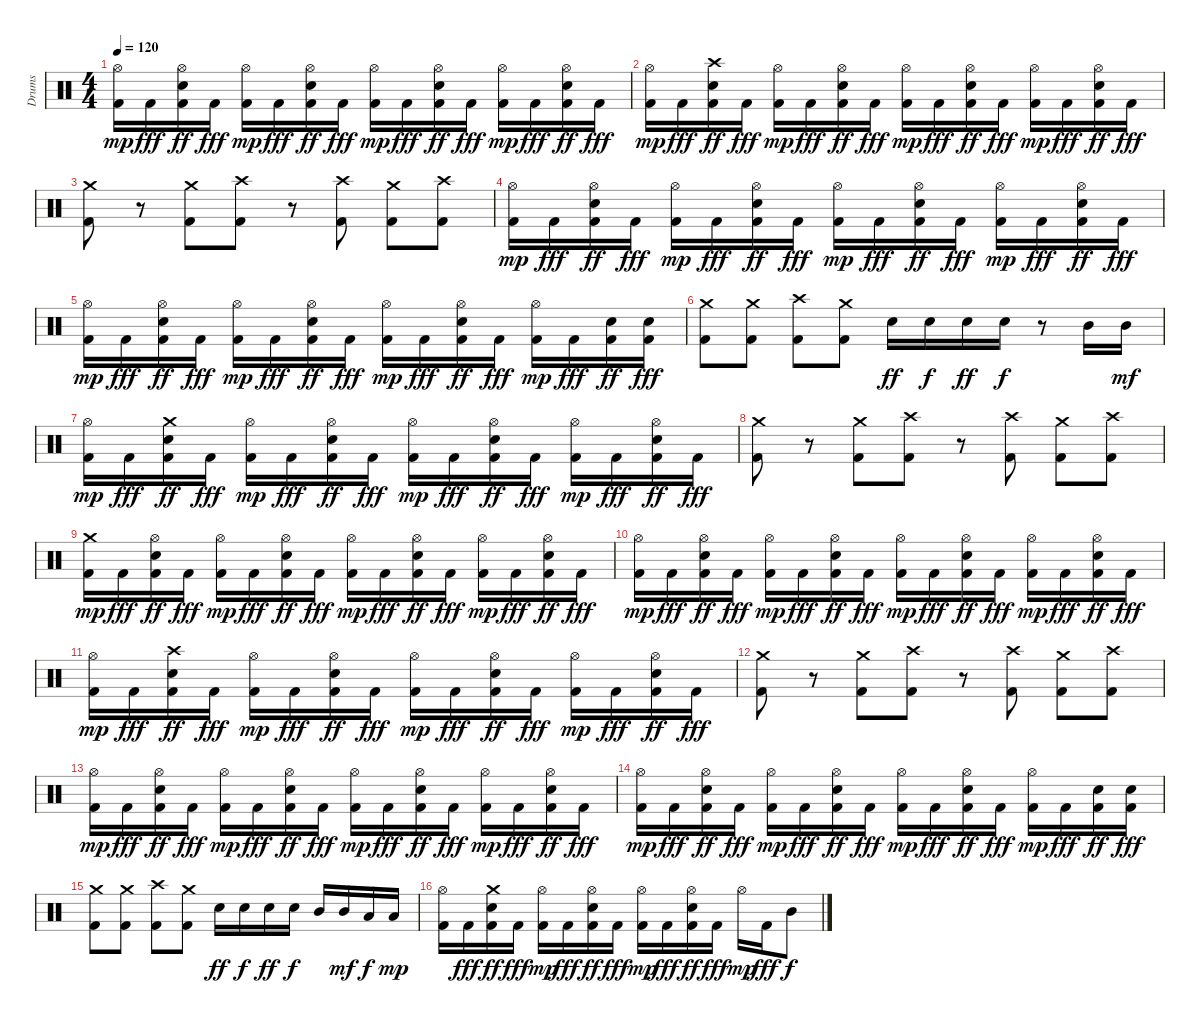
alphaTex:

\track ("Drums" "Drums") {instrument percussion}
\staff {score}
\articulation defaults
\ts (4 4)
\tempo 120
\clef neutral
\ks c
("Kick (hit) 2" "Hi-Hat (open)").16{dy mp} "Kick (hit) 2".16{dy fff} ("Kick (hit) 2" "Hi-Hat (open)" "Snare (hit) 2").16{dy ff} "Kick (hit) 2".16{dy fff} ("Kick (hit) 2" "Hi-Hat (open)").16{dy mp} "Kick (hit) 2".16{dy fff} ("Kick (hit) 2" "Hi-Hat (open)" "Snare (hit) 2").16{dy ff} "Kick (hit) 2".16{dy fff} ("Kick (hit) 2" "Hi-Hat (open)").16{dy mp} "Kick (hit) 2".16{dy fff} ("Kick (hit) 2" "Hi-Hat (open)" "Snare (hit) 2").16{dy ff} "Kick (hit) 2".16{dy fff} ("Kick (hit) 2" "Hi-Hat (open)").16{dy mp} "Kick (hit) 2".16{dy fff} ("Kick (hit) 2" "Hi-Hat (open)" "Snare (hit) 2").16{dy ff} "Kick (hit) 2".16{dy fff} |
("Kick (hit) 2" "Hi-Hat (open)").16{dy mp} "Kick (hit) 2".16{dy fff} ("Kick (hit) 2" "Crash high (hit)" "Snare (hit) 2").16{dy ff} "Kick (hit) 2".16{dy fff} ("Kick (hit) 2" "Hi-Hat (open)").16{dy mp} "Kick (hit) 2".16{dy fff} ("Kick (hit) 2" "Hi-Hat (open)" "Snare (hit) 2").16{dy ff} "Kick (hit) 2".16{dy fff} ("Kick (hit) 2" "Hi-Hat (open)").16{dy mp} "Kick (hit) 2".16{dy fff} ("Kick (hit) 2" "Hi-Hat (open)" "Snare (hit) 2").16{dy ff} "Kick (hit) 2".16{dy fff} ("Kick (hit) 2" "Hi-Hat (open)").16{dy mp} "Kick (hit) 2".16{dy fff} ("Kick (hit) 2" "Hi-Hat (open)" "Snare (hit) 2").16{dy ff} "Kick (hit) 2".16{dy fff} |
("Crash medium (hit)" "Kick (hit) 2").8 r.8 ("Crash medium (hit)" "Kick (hit) 2").8 ("Crash high (hit)" "Kick (hit) 2").8 r.8 ("Crash high (hit)" "Kick (hit) 2").8 ("Crash medium (hit)" "Kick (hit) 2").8 ("Crash high (hit)" "Kick (hit) 2").8 |
("Kick (hit) 2" "Hi-Hat (open)").16{dy mp} "Kick (hit) 2".16{dy fff} ("Kick (hit) 2" "Hi-Hat (open)" "Snare (hit) 2").16{dy ff} "Kick (hit) 2".16{dy fff} ("Kick (hit) 2" "Hi-Hat (open)").16{dy mp} "Kick (hit) 2".16{dy fff} ("Kick (hit) 2" "Hi-Hat (open)" "Snare (hit) 2").16{dy ff} "Kick (hit) 2".16{dy fff} ("Kick (hit) 2" "Hi-Hat (open)").16{dy mp} "Kick (hit) 2".16{dy fff} ("Kick (hit) 2" "Hi-Hat (open)" "Snare (hit) 2").16{dy ff} "Kick (hit) 2".16{dy fff} ("Kick (hit) 2" "Hi-Hat (open)").16{dy mp} "Kick (hit) 2".16{dy fff} ("Kick (hit) 2" "Hi-Hat (open)" "Snare (hit) 2").16{dy ff} "Kick (hit) 2".16{dy fff} |
("Kick (hit) 2" "Hi-Hat (open)").16{dy mp} "Kick (hit) 2".16{dy fff} ("Kick (hit) 2" "Hi-Hat (open)" "Snare (hit) 2").16{dy ff} "Kick (hit) 2".16{dy fff} ("Kick (hit) 2" "Hi-Hat (open)").16{dy mp} "Kick (hit) 2".16{dy fff} ("Kick (hit) 2" "Hi-Hat (open)" "Snare (hit) 2").16{dy ff} "Kick (hit) 2".16{dy fff} ("Kick (hit) 2" "Hi-Hat (open)").16{dy mp} "Kick (hit) 2".16{dy fff} ("Kick (hit) 2" "Hi-Hat (open)" "Snare (hit) 2").16{dy ff} "Kick (hit) 2".16{dy fff} ("Kick (hit) 2" "Hi-Hat (open)").16{dy mp} "Kick (hit) 2".16{dy fff} ("Kick (hit) 2" "Snare (hit) 2").16{dy ff} ("Kick (hit) 2" "Snare (hit) 2").16{dy fff} |
("Crash medium (hit)" "Kick (hit) 2").8 ("Crash medium (hit)" "Kick (hit) 2").8 ("Crash high (hit)" "Kick (hit) 2").8 ("Crash medium (hit)" "Kick (hit) 2").8 "Snare (hit) 2".16{dy ff} "Snare (hit) 2".16{dy f} "Snare (hit) 2".16{dy ff} "Snare (hit) 2".16{dy f} r.8 "Mid Tom (hit)".16 "Mid Tom (hit)".16{dy mf} |
("Kick (hit) 2" "Hi-Hat (open)").16{dy mp} "Kick (hit) 2".16{dy fff} ("Kick (hit) 2" "Crash medium (hit)" "Snare (hit) 2").16{dy ff} "Kick (hit) 2".16{dy fff} ("Kick (hit) 2" "Hi-Hat (open)").16{dy mp} "Kick (hit) 2".16{dy fff} ("Kick (hit) 2" "Hi-Hat (open)" "Snare (hit) 2").16{dy ff} "Kick (hit) 2".16{dy fff} ("Kick (hit) 2" "Hi-Hat (open)").16{dy mp} "Kick (hit) 2".16{dy fff} ("Kick (hit) 2" "Hi-Hat (open)" "Snare (hit) 2").16{dy ff} "Kick (hit) 2".16{dy fff} ("Kick (hit) 2" "Hi-Hat (open)").16{dy mp} "Kick (hit) 2".16{dy fff} ("Kick (hit) 2" "Hi-Hat (open)" "Snare (hit) 2").16{dy ff} "Kick (hit) 2".16{dy fff} |
("Crash medium (hit)" "Kick (hit) 2").8 r.8 ("Crash medium (hit)" "Kick (hit) 2").8 ("Crash high (hit)" "Kick (hit) 2").8 r.8 ("Crash high (hit)" "Kick (hit) 2").8 ("Crash medium (hit)" "Kick (hit) 2").8 ("Crash high (hit)" "Kick (hit) 2").8 |
("Kick (hit) 2" "Crash medium (hit)").16{dy mp} "Kick (hit) 2".16{dy fff} ("Kick (hit) 2" "Hi-Hat (open)" "Snare (hit) 2").16{dy ff} "Kick (hit) 2".16{dy fff} ("Kick (hit) 2" "Hi-Hat (open)").16{dy mp} "Kick (hit) 2".16{dy fff} ("Kick (hit) 2" "Hi-Hat (open)" "Snare (hit) 2").16{dy ff} "Kick (hit) 2".16{dy fff} ("Kick (hit) 2" "Hi-Hat (open)").16{dy mp} "Kick (hit) 2".16{dy fff} ("Kick (hit) 2" "Hi-Hat (open)" "Snare (hit) 2").16{dy ff} "Kick (hit) 2".16{dy fff} ("Kick (hit) 2" "Hi-Hat (open)").16{dy mp} "Kick (hit) 2".16{dy fff} ("Kick (hit) 2" "Hi-Hat (open)" "Snare (hit) 2").16{dy ff} "Kick (hit) 2".16{dy fff} |
("Kick (hit) 2" "Hi-Hat (open)").16{dy mp} "Kick (hit) 2".16{dy fff} ("Kick (hit) 2" "Hi-Hat (open)" "Snare (hit) 2").16{dy ff} "Kick (hit) 2".16{dy fff} ("Kick (hit) 2" "Hi-Hat (open)").16{dy mp} "Kick (hit) 2".16{dy fff} ("Kick (hit) 2" "Hi-Hat (open)" "Snare (hit) 2").16{dy ff} "Kick (hit) 2".16{dy fff} ("Kick (hit) 2" "Hi-Hat (open)").16{dy mp} "Kick (hit) 2".16{dy fff} ("Kick (hit) 2" "Hi-Hat (open)" "Snare (hit) 2").16{dy ff} "Kick (hit) 2".16{dy fff} ("Kick (hit) 2" "Hi-Hat (open)").16{dy mp} "Kick (hit) 2".16{dy fff} ("Kick (hit) 2" "Hi-Hat (open)" "Snare (hit) 2").16{dy ff} "Kick (hit) 2".16{dy fff} |
("Kick (hit) 2" "Hi-Hat (open)").16{dy mp} "Kick (hit) 2".16{dy fff} ("Kick (hit) 2" "Crash high (hit)" "Snare (hit) 2").16{dy ff} "Kick (hit) 2".16{dy fff} ("Kick (hit) 2" "Hi-Hat (open)").16{dy mp} "Kick (hit) 2".16{dy fff} ("Kick (hit) 2" "Hi-Hat (open)" "Snare (hit) 2").16{dy ff} "Kick (hit) 2".16{dy fff} ("Kick (hit) 2" "Hi-Hat (open)").16{dy mp} "Kick (hit) 2".16{dy fff} ("Kick (hit) 2" "Hi-Hat (open)" "Snare (hit) 2").16{dy ff} "Kick (hit) 2".16{dy fff} ("Kick (hit) 2" "Hi-Hat (open)").16{dy mp} "Kick (hit) 2".16{dy fff} ("Kick (hit) 2" "Hi-Hat (open)" "Snare (hit) 2").16{dy ff} "Kick (hit) 2".16{dy fff} |
("Crash medium (hit)" "Kick (hit) 2").8 r.8 ("Crash medium (hit)" "Kick (hit) 2").8 ("Crash high (hit)" "Kick (hit) 2").8 r.8 ("Crash high (hit)" "Kick (hit) 2").8 ("Crash medium (hit)" "Kick (hit) 2").8 ("Crash high (hit)" "Kick (hit) 2").8 |
("Kick (hit) 2" "Hi-Hat (open)").16{dy mp} "Kick (hit) 2".16{dy fff} ("Kick (hit) 2" "Hi-Hat (open)" "Snare (hit) 2").16{dy ff} "Kick (hit) 2".16{dy fff} ("Kick (hit) 2" "Hi-Hat (open)").16{dy mp} "Kick (hit) 2".16{dy fff} ("Kick (hit) 2" "Hi-Hat (open)" "Snare (hit) 2").16{dy ff} "Kick (hit) 2".16{dy fff} ("Kick (hit) 2" "Hi-Hat (open)").16{dy mp} "Kick (hit) 2".16{dy fff} ("Kick (hit) 2" "Hi-Hat (open)" "Snare (hit) 2").16{dy ff} "Kick (hit) 2".16{dy fff} ("Kick (hit) 2" "Hi-Hat (open)").16{dy mp} "Kick (hit) 2".16{dy fff} ("Kick (hit) 2" "Hi-Hat (open)" "Snare (hit) 2").16{dy ff} "Kick (hit) 2".16{dy fff} |
("Kick (hit) 2" "Hi-Hat (open)").16{dy mp} "Kick (hit) 2".16{dy fff} ("Kick (hit) 2" "Hi-Hat (open)" "Snare (hit) 2").16{dy ff} "Kick (hit) 2".16{dy fff} ("Kick (hit) 2" "Hi-Hat (open)").16{dy mp} "Kick (hit) 2".16{dy fff} ("Kick (hit) 2" "Hi-Hat (open)" "Snare (hit) 2").16{dy ff} "Kick (hit) 2".16{dy fff} ("Kick (hit) 2" "Hi-Hat (open)").16{dy mp} "Kick (hit) 2".16{dy fff} ("Kick (hit) 2" "Hi-Hat (open)" "Snare (hit) 2").16{dy ff} "Kick (hit) 2".16{dy fff} ("Kick (hit) 2" "Hi-Hat (open)").16{dy mp} "Kick (hit) 2".16{dy fff} ("Kick (hit) 2" "Snare (hit) 2").16{dy ff} ("Kick (hit) 2" "Snare (hit) 2").16{dy fff} |
("Crash medium (hit)" "Kick (hit) 2").8 ("Crash medium (hit)" "Kick (hit) 2").8 ("Crash high (hit)" "Kick (hit) 2").8 ("Crash medium (hit)" "Kick (hit) 2").8 "Snare (hit) 2".16{dy ff} "Snare (hit) 2".16{dy f} "Snare (hit) 2".16{dy ff} "Snare (hit) 2".16{dy f} "Mid Tom (hit)".16 "Mid Tom (hit)".16{dy mf} "Low Tom (hit)".16{dy f} "Low Tom (hit)".16{dy mp} |
("Kick (hit) 2" "Hi-Hat (open)").16 "Kick (hit) 2".16{dy fff} ("Kick (hit) 2" "Crash medium (hit)" "Snare (hit) 2").16{dy ff} "Kick (hit) 2".16{dy fff} ("Kick (hit) 2" "Hi-Hat (open)").16{dy mp} "Kick (hit) 2".16{dy fff} ("Kick (hit) 2" "Hi-Hat (open)" "Snare (hit) 2").16{dy ff} "Kick (hit) 2".16{dy fff} ("Kick (hit) 2" "Hi-Hat (open)").16{dy mp} "Kick (hit) 2".16{dy fff} ("Kick (hit) 2" "Hi-Hat (open)" "Snare (hit) 2").16{dy ff} "Kick (hit) 2".16{dy fff} "Hi-Hat (open)".16{dy mp} "Kick (hit) 2".16{dy fff} "Mid Tom (hit)".8{dy f}
